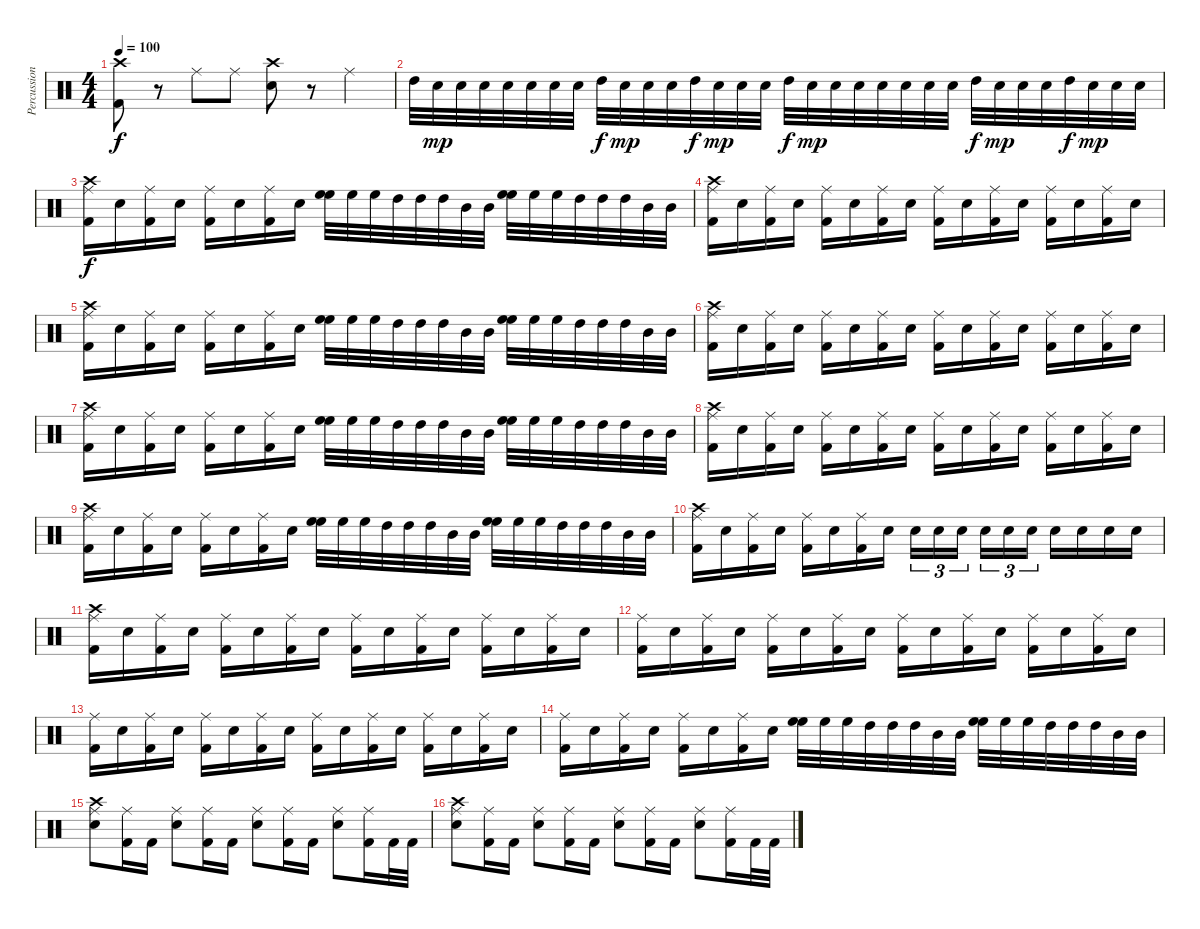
\track ("Percussion" "Percussion") {instrument percussion}
\staff {score}
\articulation defaults
\ts (4 4)
\tempo 100
\clef neutral
\ks c
("Crash high (hit)" "Kick (hit) 2").8{dy f} r.8 "Ride (middle)".8 "Ride (middle)".8 ("Crash high (hit)" "Snare (hit) 2").8 r.8 "Ride (middle)".4 |
"High Tom (hit)".32 "Snare (hit) 2".32{dy mp} "Snare (hit) 2".32 "Snare (hit) 2".32 "Snare (hit) 2".32 "Snare (hit) 2".32 "Snare (hit) 2".32 "Snare (hit) 2".32 "High Tom (hit)".32{dy f} "Snare (hit) 2".32{dy mp} "Snare (hit) 2".32 "Snare (hit) 2".32 "High Tom (hit)".32{dy f} "Snare (hit) 2".32{dy mp} "Snare (hit) 2".32 "Snare (hit) 2".32 "High Tom (hit)".32{dy f} "Snare (hit) 2".32{dy mp} "Snare (hit) 2".32 "Snare (hit) 2".32 "Snare (hit) 2".32 "Snare (hit) 2".32 "Snare (hit) 2".32 "Snare (hit) 2".32 "High Tom (hit)".32{dy f} "Snare (hit) 2".32{dy mp} "Snare (hit) 2".32 "Snare (hit) 2".32 "High Tom (hit)".32{dy f} "Snare (hit) 2".32{dy mp} "Snare (hit) 2".32 "Snare (hit) 2".32 |
("Crash high (hit)" "Ride (middle)" "Kick (hit) 2").16{dy f} "Snare (hit) 2".16 ("Ride (middle)" "Kick (hit) 2").16 "Snare (hit) 2".16 ("Ride (middle)" "Kick (hit) 2").16 "Snare (hit) 2".16 ("Ride (middle)" "Kick (hit) 2").16 "Snare (hit) 2".16 ("High Floor Tom (hit)" "High Floor Tom (hit)").32 "High Floor Tom (hit)".32 "High Floor Tom (hit)".32 "High Tom (hit)".32 "High Tom (hit)".32 "High Tom (hit)".32 "Mid Tom (hit)".32 "Mid Tom (hit)".32 ("High Floor Tom (hit)" "High Floor Tom (hit)").32 "High Floor Tom (hit)".32 "High Floor Tom (hit)".32 "High Tom (hit)".32 "High Tom (hit)".32 "High Tom (hit)".32 "Mid Tom (hit)".32 "Mid Tom (hit)".32 |
("Crash high (hit)" "Ride (middle)" "Kick (hit) 2").16 "Snare (hit) 2".16 ("Ride (middle)" "Kick (hit) 2").16 "Snare (hit) 2".16 ("Ride (middle)" "Kick (hit) 2").16 "Snare (hit) 2".16 ("Ride (middle)" "Kick (hit) 2").16 "Snare (hit) 2".16 ("Ride (middle)" "Kick (hit) 2").16 "Snare (hit) 2".16 ("Ride (middle)" "Kick (hit) 2").16 "Snare (hit) 2".16 ("Ride (middle)" "Kick (hit) 2").16 "Snare (hit) 2".16 ("Ride (middle)" "Kick (hit) 2").16 "Snare (hit) 2".16 |
("Crash high (hit)" "Ride (middle)" "Kick (hit) 2").16 "Snare (hit) 2".16 ("Ride (middle)" "Kick (hit) 2").16 "Snare (hit) 2".16 ("Ride (middle)" "Kick (hit) 2").16 "Snare (hit) 2".16 ("Ride (middle)" "Kick (hit) 2").16 "Snare (hit) 2".16 ("High Floor Tom (hit)" "High Floor Tom (hit)").32 "High Floor Tom (hit)".32 "High Floor Tom (hit)".32 "High Tom (hit)".32 "High Tom (hit)".32 "High Tom (hit)".32 "Mid Tom (hit)".32 "Mid Tom (hit)".32 ("High Floor Tom (hit)" "High Floor Tom (hit)").32 "High Floor Tom (hit)".32 "High Floor Tom (hit)".32 "High Tom (hit)".32 "High Tom (hit)".32 "High Tom (hit)".32 "Mid Tom (hit)".32 "Mid Tom (hit)".32 |
("Crash high (hit)" "Ride (middle)" "Kick (hit) 2").16 "Snare (hit) 2".16 ("Ride (middle)" "Kick (hit) 2").16 "Snare (hit) 2".16 ("Ride (middle)" "Kick (hit) 2").16 "Snare (hit) 2".16 ("Ride (middle)" "Kick (hit) 2").16 "Snare (hit) 2".16 ("Ride (middle)" "Kick (hit) 2").16 "Snare (hit) 2".16 ("Ride (middle)" "Kick (hit) 2").16 "Snare (hit) 2".16 ("Ride (middle)" "Kick (hit) 2").16 "Snare (hit) 2".16 ("Ride (middle)" "Kick (hit) 2").16 "Snare (hit) 2".16 |
("Crash high (hit)" "Ride (middle)" "Kick (hit) 2").16 "Snare (hit) 2".16 ("Ride (middle)" "Kick (hit) 2").16 "Snare (hit) 2".16 ("Ride (middle)" "Kick (hit) 2").16 "Snare (hit) 2".16 ("Ride (middle)" "Kick (hit) 2").16 "Snare (hit) 2".16 ("High Floor Tom (hit)" "High Floor Tom (hit)").32 "High Floor Tom (hit)".32 "High Floor Tom (hit)".32 "High Tom (hit)".32 "High Tom (hit)".32 "High Tom (hit)".32 "Mid Tom (hit)".32 "Mid Tom (hit)".32 ("High Floor Tom (hit)" "High Floor Tom (hit)").32 "High Floor Tom (hit)".32 "High Floor Tom (hit)".32 "High Tom (hit)".32 "High Tom (hit)".32 "High Tom (hit)".32 "Mid Tom (hit)".32 "Mid Tom (hit)".32 |
("Crash high (hit)" "Ride (middle)" "Kick (hit) 2").16 "Snare (hit) 2".16 ("Ride (middle)" "Kick (hit) 2").16 "Snare (hit) 2".16 ("Ride (middle)" "Kick (hit) 2").16 "Snare (hit) 2".16 ("Ride (middle)" "Kick (hit) 2").16 "Snare (hit) 2".16 ("Ride (middle)" "Kick (hit) 2").16 "Snare (hit) 2".16 ("Ride (middle)" "Kick (hit) 2").16 "Snare (hit) 2".16 ("Ride (middle)" "Kick (hit) 2").16 "Snare (hit) 2".16 ("Ride (middle)" "Kick (hit) 2").16 "Snare (hit) 2".16 |
("Crash high (hit)" "Ride (middle)" "Kick (hit) 2").16 "Snare (hit) 2".16 ("Ride (middle)" "Kick (hit) 2").16 "Snare (hit) 2".16 ("Ride (middle)" "Kick (hit) 2").16 "Snare (hit) 2".16 ("Ride (middle)" "Kick (hit) 2").16 "Snare (hit) 2".16 ("High Floor Tom (hit)" "High Floor Tom (hit)").32 "High Floor Tom (hit)".32 "High Floor Tom (hit)".32 "High Tom (hit)".32 "High Tom (hit)".32 "High Tom (hit)".32 "Mid Tom (hit)".32 "Mid Tom (hit)".32 ("High Floor Tom (hit)" "High Floor Tom (hit)").32 "High Floor Tom (hit)".32 "High Floor Tom (hit)".32 "High Tom (hit)".32 "High Tom (hit)".32 "High Tom (hit)".32 "Mid Tom (hit)".32 "Mid Tom (hit)".32 |
("Crash high (hit)" "Ride (middle)" "Kick (hit) 2").16 "Snare (hit) 2".16 ("Ride (middle)" "Kick (hit) 2").16 "Snare (hit) 2".16 ("Ride (middle)" "Kick (hit) 2").16 "Snare (hit) 2".16 ("Ride (middle)" "Kick (hit) 2").16 "Snare (hit) 2".16 "Snare (hit) 2".16{tu (3 2)} "Snare (hit) 2".16{tu (3 2)} "Snare (hit) 2".16{tu (3 2)} "Snare (hit) 2".16{tu (3 2)} "Snare (hit) 2".16{tu (3 2)} "Snare (hit) 2".16{tu (3 2)} "Snare (hit) 2".16 "Snare (hit) 2".16 "Snare (hit) 2".16 "Snare (hit) 2".16 |
("Crash high (hit)" "Ride (middle)" "Kick (hit) 2").16 "Snare (hit) 2".16 ("Ride (middle)" "Kick (hit) 2").16 "Snare (hit) 2".16 ("Ride (middle)" "Kick (hit) 2").16 "Snare (hit) 2".16 ("Ride (middle)" "Kick (hit) 2").16 "Snare (hit) 2".16 ("Ride (middle)" "Kick (hit) 2").16 "Snare (hit) 2".16 ("Ride (middle)" "Kick (hit) 2").16 "Snare (hit) 2".16 ("Ride (middle)" "Kick (hit) 2").16 "Snare (hit) 2".16 ("Ride (middle)" "Kick (hit) 2").16 "Snare (hit) 2".16 |
("Ride (middle)" "Kick (hit) 2").16 "Snare (hit) 2".16 ("Ride (middle)" "Kick (hit) 2").16 "Snare (hit) 2".16 ("Ride (middle)" "Kick (hit) 2").16 "Snare (hit) 2".16 ("Ride (middle)" "Kick (hit) 2").16 "Snare (hit) 2".16 ("Ride (middle)" "Kick (hit) 2").16 "Snare (hit) 2".16 ("Ride (middle)" "Kick (hit) 2").16 "Snare (hit) 2".16 ("Ride (middle)" "Kick (hit) 2").16 "Snare (hit) 2".16 ("Ride (middle)" "Kick (hit) 2").16 "Snare (hit) 2".16 |
("Ride (middle)" "Kick (hit) 2").16 "Snare (hit) 2".16 ("Ride (middle)" "Kick (hit) 2").16 "Snare (hit) 2".16 ("Ride (middle)" "Kick (hit) 2").16 "Snare (hit) 2".16 ("Ride (middle)" "Kick (hit) 2").16 "Snare (hit) 2".16 ("Ride (middle)" "Kick (hit) 2").16 "Snare (hit) 2".16 ("Ride (middle)" "Kick (hit) 2").16 "Snare (hit) 2".16 ("Ride (middle)" "Kick (hit) 2").16 "Snare (hit) 2".16 ("Ride (middle)" "Kick (hit) 2").16 "Snare (hit) 2".16 |
("Ride (middle)" "Kick (hit) 2").16 "Snare (hit) 2".16 ("Ride (middle)" "Kick (hit) 2").16 "Snare (hit) 2".16 ("Ride (middle)" "Kick (hit) 2").16 "Snare (hit) 2".16 ("Ride (middle)" "Kick (hit) 2").16 "Snare (hit) 2".16 ("High Floor Tom (hit)" "High Floor Tom (hit)").32 "High Floor Tom (hit)".32 "High Floor Tom (hit)".32 "High Tom (hit)".32 "High Tom (hit)".32 "High Tom (hit)".32 "Mid Tom (hit)".32 "Mid Tom (hit)".32 ("High Floor Tom (hit)" "High Floor Tom (hit)").32 "High Floor Tom (hit)".32 "High Floor Tom (hit)".32 "High Tom (hit)".32 "High Tom (hit)".32 "High Tom (hit)".32 "Mid Tom (hit)".32 "Mid Tom (hit)".32 |
("Crash high (hit)" "Ride (middle)" "Snare (hit) 2").8 ("Ride (middle)" "Kick (hit) 2").16 "Kick (hit) 2".16 ("Ride (middle)" "Snare (hit) 2").8 ("Ride (middle)" "Kick (hit) 2").16 "Kick (hit) 2".16 ("Ride (middle)" "Snare (hit) 2").8 ("Ride (middle)" "Kick (hit) 2").16 "Kick (hit) 2".16 ("Ride (middle)" "Snare (hit) 2").8 ("Ride (middle)" "Kick (hit) 2").16 "Kick (hit) 2".32 "Kick (hit) 2".32 |
("Crash high (hit)" "Ride (middle)" "Snare (hit) 2").8 ("Ride (middle)" "Kick (hit) 2").16 "Kick (hit) 2".16 ("Ride (middle)" "Snare (hit) 2").8 ("Ride (middle)" "Kick (hit) 2").16 "Kick (hit) 2".16 ("Ride (middle)" "Snare (hit) 2").8 ("Ride (middle)" "Kick (hit) 2").16 "Kick (hit) 2".16 ("Ride (middle)" "Snare (hit) 2").8 ("Ride (middle)" "Kick (hit) 2").16 "Kick (hit) 2".32 "Kick (hit) 2".32
